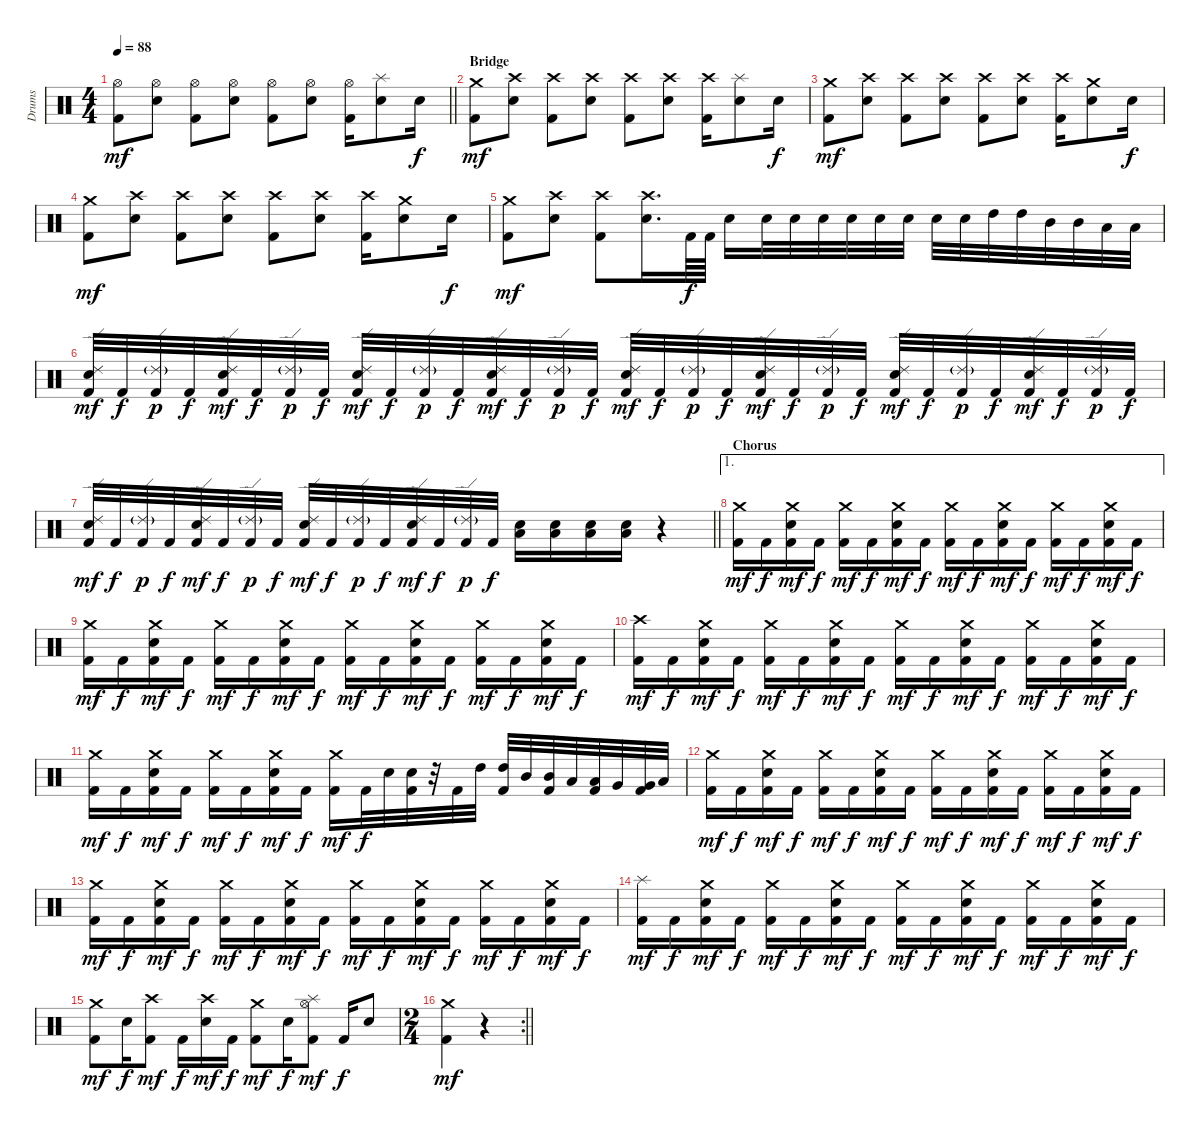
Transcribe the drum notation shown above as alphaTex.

\track ("Drums" "Drums") {instrument percussion}
\staff {score}
\articulation defaults
\ts (4 4)
\tempo 88
\clef neutral
\barLineRight lightlight
\ks c
("Hi-Hat (open)" "Kick (hit) 2").8{dy mf} ("Hi-Hat (open)" "Electric Snare (hit)").8 ("Hi-Hat (open)" "Kick (hit) 2").8 ("Hi-Hat (open)" "Electric Snare (hit)").8 ("Hi-Hat (open)" "Kick (hit) 2").8 ("Hi-Hat (open)" "Electric Snare (hit)").8 ("Hi-Hat (open)" "Kick (hit) 2").16 ("Splash (hit)" "Electric Snare (hit)").8 "Electric Snare (hit)".16{dy f} |
\section ("" "Bridge")
("Crash medium (hit)" "Kick (hit) 2").8{dy mf} ("Crash high (hit)" "Electric Snare (hit)").8 ("Crash high (hit)" "Kick (hit) 2").8 ("Crash high (hit)" "Electric Snare (hit)").8 ("Crash high (hit)" "Kick (hit) 2").8 ("Crash high (hit)" "Electric Snare (hit)").8 ("Crash high (hit)" "Kick (hit) 2").16 ("Splash (hit)" "Electric Snare (hit)").8 "Electric Snare (hit)".16{dy f} |
("Crash medium (hit)" "Kick (hit) 2").8{dy mf} ("Crash high (hit)" "Electric Snare (hit)").8 ("Crash high (hit)" "Kick (hit) 2").8 ("Crash high (hit)" "Electric Snare (hit)").8 ("Crash high (hit)" "Kick (hit) 2").8 ("Crash high (hit)" "Electric Snare (hit)").8 ("Crash high (hit)" "Kick (hit) 2").16 ("Crash medium (hit)" "Electric Snare (hit)").8 "Electric Snare (hit)".16{dy f} |
("Crash medium (hit)" "Kick (hit) 2").8{dy mf} ("Crash high (hit)" "Electric Snare (hit)").8 ("Crash high (hit)" "Kick (hit) 2").8 ("Crash high (hit)" "Electric Snare (hit)").8 ("Crash high (hit)" "Kick (hit) 2").8 ("Crash high (hit)" "Electric Snare (hit)").8 ("Crash high (hit)" "Kick (hit) 2").16 ("Crash medium (hit)" "Electric Snare (hit)").8 "Electric Snare (hit)".16{dy f} |
("Crash medium (hit)" "Kick (hit) 2").8{dy mf} ("Crash high (hit)" "Electric Snare (hit)").8 ("Crash high (hit)" "Kick (hit) 2").8 ("Crash high (hit)" "Electric Snare (hit)").16{d} "Kick (hit) 2".64{dy f} "Kick (hit) 2".64 "Electric Snare (hit)".16 "Electric Snare (hit)".32 "Electric Snare (hit)".32 "Electric Snare (hit)".32 "Electric Snare (hit)".32 "Electric Snare (hit)".32 "Electric Snare (hit)".32 "Electric Snare (hit)".32 "Electric Snare (hit)".32 "High Tom (hit)".32 "High Tom (hit)".32 "Mid Tom (hit)".32 "Mid Tom (hit)".32 "Low Tom (hit)".32 "Low Tom (hit)".32 |
("Ride (edge) 2" "Electric Snare (hit)" "Kick (hit) 2").32{dy mf} "Kick (hit) 2".32{dy f} ("Ride (edge) 2"{g} "Kick (hit) 2").32{dy p} "Kick (hit) 2".32{dy f} ("Ride (edge) 2" "Electric Snare (hit)" "Kick (hit) 2").32{dy mf} "Kick (hit) 2".32{dy f} ("Ride (edge) 2"{g} "Kick (hit) 2").32{dy p} "Kick (hit) 2".32{dy f} ("Ride (edge) 2" "Electric Snare (hit)" "Kick (hit) 2").32{dy mf} "Kick (hit) 2".32{dy f} ("Ride (edge) 2"{g} "Kick (hit) 2").32{dy p} "Kick (hit) 2".32{dy f} ("Ride (edge) 2" "Electric Snare (hit)" "Kick (hit) 2").32{dy mf} "Kick (hit) 2".32{dy f} ("Ride (edge) 2"{g} "Kick (hit) 2").32{dy p} "Kick (hit) 2".32{dy f} ("Ride (edge) 2" "Electric Snare (hit)" "Kick (hit) 2").32{dy mf} "Kick (hit) 2".32{dy f} ("Ride (edge) 2"{g} "Kick (hit) 2").32{dy p} "Kick (hit) 2".32{dy f} ("Ride (edge) 2" "Electric Snare (hit)" "Kick (hit) 2").32{dy mf} "Kick (hit) 2".32{dy f} ("Ride (edge) 2"{g} "Kick (hit) 2").32{dy p} "Kick (hit) 2".32{dy f} ("Ride (edge) 2" "Electric Snare (hit)" "Kick (hit) 2").32{dy mf} "Kick (hit) 2".32{dy f} ("Ride (edge) 2"{g} "Kick (hit) 2").32{dy p} "Kick (hit) 2".32{dy f} ("Ride (edge) 2" "Electric Snare (hit)" "Kick (hit) 2").32{dy mf} "Kick (hit) 2".32{dy f} ("Ride (edge) 2"{g} "Kick (hit) 2").32{dy p} "Kick (hit) 2".32{dy f} |
\barLineRight lightlight
("Ride (edge) 2" "Electric Snare (hit)" "Kick (hit) 2").32{dy mf} "Kick (hit) 2".32{dy f} ("Ride (edge) 2"{g} "Kick (hit) 2").32{dy p} "Kick (hit) 2".32{dy f} ("Ride (edge) 2" "Electric Snare (hit)" "Kick (hit) 2").32{dy mf} "Kick (hit) 2".32{dy f} ("Ride (edge) 2"{g} "Kick (hit) 2").32{dy p} "Kick (hit) 2".32{dy f} ("Ride (edge) 2" "Electric Snare (hit)" "Kick (hit) 2").32{dy mf} "Kick (hit) 2".32{dy f} ("Ride (edge) 2"{g} "Kick (hit) 2").32{dy p} "Kick (hit) 2".32{dy f} ("Ride (edge) 2" "Electric Snare (hit)" "Kick (hit) 2").32{dy mf} "Kick (hit) 2".32{dy f} ("Ride (edge) 2"{g} "Kick (hit) 2").32{dy p} "Kick (hit) 2".32{dy f} ("Electric Snare (hit)" "Low Floor Tom (hit)").16 ("Electric Snare (hit)" "Low Floor Tom (hit)").16 ("Electric Snare (hit)" "Low Floor Tom (hit)").16 ("Electric Snare (hit)" "Low Floor Tom (hit)").16 r.4 |
\ae 1
\section ("" "Chorus")
("Crash medium (hit)" "Kick (hit) 2").16{dy mf} "Kick (hit) 2".16{dy f} ("Crash medium (hit)" "Electric Snare (hit)" "Kick (hit) 2").16{dy mf} "Kick (hit) 2".16{dy f} ("Crash medium (hit)" "Kick (hit) 2").16{dy mf} "Kick (hit) 2".16{dy f} ("Crash medium (hit)" "Electric Snare (hit)" "Kick (hit) 2").16{dy mf} "Kick (hit) 2".16{dy f} ("Crash medium (hit)" "Kick (hit) 2").16{dy mf} "Kick (hit) 2".16{dy f} ("Crash medium (hit)" "Electric Snare (hit)" "Kick (hit) 2").16{dy mf} "Kick (hit) 2".16{dy f} ("Crash medium (hit)" "Kick (hit) 2").16{dy mf} "Kick (hit) 2".16{dy f} ("Crash medium (hit)" "Electric Snare (hit)" "Kick (hit) 2").16{dy mf} "Kick (hit) 2".16{dy f} |
("Crash medium (hit)" "Kick (hit) 2").16{dy mf} "Kick (hit) 2".16{dy f} ("Crash medium (hit)" "Electric Snare (hit)" "Kick (hit) 2").16{dy mf} "Kick (hit) 2".16{dy f} ("Crash medium (hit)" "Kick (hit) 2").16{dy mf} "Kick (hit) 2".16{dy f} ("Crash medium (hit)" "Electric Snare (hit)" "Kick (hit) 2").16{dy mf} "Kick (hit) 2".16{dy f} ("Crash medium (hit)" "Kick (hit) 2").16{dy mf} "Kick (hit) 2".16{dy f} ("Crash medium (hit)" "Electric Snare (hit)" "Kick (hit) 2").16{dy mf} "Kick (hit) 2".16{dy f} ("Crash medium (hit)" "Kick (hit) 2").16{dy mf} "Kick (hit) 2".16{dy f} ("Crash medium (hit)" "Electric Snare (hit)" "Kick (hit) 2").16{dy mf} "Kick (hit) 2".16{dy f} |
("Crash high (hit)" "Kick (hit) 2").16{dy mf} "Kick (hit) 2".16{dy f} ("Crash medium (hit)" "Electric Snare (hit)" "Kick (hit) 2").16{dy mf} "Kick (hit) 2".16{dy f} ("Crash medium (hit)" "Kick (hit) 2").16{dy mf} "Kick (hit) 2".16{dy f} ("Crash medium (hit)" "Electric Snare (hit)" "Kick (hit) 2").16{dy mf} "Kick (hit) 2".16{dy f} ("Crash medium (hit)" "Kick (hit) 2").16{dy mf} "Kick (hit) 2".16{dy f} ("Crash medium (hit)" "Electric Snare (hit)" "Kick (hit) 2").16{dy mf} "Kick (hit) 2".16{dy f} ("Crash medium (hit)" "Kick (hit) 2").16{dy mf} "Kick (hit) 2".16{dy f} ("Crash medium (hit)" "Electric Snare (hit)" "Kick (hit) 2").16{dy mf} "Kick (hit) 2".16{dy f} |
("Crash medium (hit)" "Kick (hit) 2").16{dy mf} "Kick (hit) 2".16{dy f} ("Crash medium (hit)" "Electric Snare (hit)" "Kick (hit) 2").16{dy mf} "Kick (hit) 2".16{dy f} ("Crash medium (hit)" "Kick (hit) 2").16{dy mf} "Kick (hit) 2".16{dy f} ("Crash medium (hit)" "Electric Snare (hit)" "Kick (hit) 2").16{dy mf} "Kick (hit) 2".16{dy f} ("Crash medium (hit)" "Kick (hit) 2").16{dy mf} "Kick (hit) 2".32{dy f} "Electric Snare (hit)".32 ("Electric Snare (hit)" "Kick (hit) 2").32 r.32 "Kick (hit) 2".32 "High Tom (hit)".32 ("High Tom (hit)" "Kick (hit) 2").32 "Mid Tom (hit)".32 ("Mid Tom (hit)" "Kick (hit) 2").32 "Low Tom (hit)".32 ("Low Tom (hit)" "Kick (hit) 2").32 "Very Low Tom (hit)".32 ("Very Low Tom (hit)" "Kick (hit) 2").32 "Low Floor Tom (hit)".32 |
("Crash medium (hit)" "Kick (hit) 2").16{dy mf} "Kick (hit) 2".16{dy f} ("Crash medium (hit)" "Electric Snare (hit)" "Kick (hit) 2").16{dy mf} "Kick (hit) 2".16{dy f} ("Crash medium (hit)" "Kick (hit) 2").16{dy mf} "Kick (hit) 2".16{dy f} ("Crash medium (hit)" "Electric Snare (hit)" "Kick (hit) 2").16{dy mf} "Kick (hit) 2".16{dy f} ("Crash medium (hit)" "Kick (hit) 2").16{dy mf} "Kick (hit) 2".16{dy f} ("Crash medium (hit)" "Electric Snare (hit)" "Kick (hit) 2").16{dy mf} "Kick (hit) 2".16{dy f} ("Crash medium (hit)" "Kick (hit) 2").16{dy mf} "Kick (hit) 2".16{dy f} ("Crash medium (hit)" "Electric Snare (hit)" "Kick (hit) 2").16{dy mf} "Kick (hit) 2".16{dy f} |
("Crash medium (hit)" "Kick (hit) 2").16{dy mf} "Kick (hit) 2".16{dy f} ("Crash medium (hit)" "Electric Snare (hit)" "Kick (hit) 2").16{dy mf} "Kick (hit) 2".16{dy f} ("Crash medium (hit)" "Kick (hit) 2").16{dy mf} "Kick (hit) 2".16{dy f} ("Crash medium (hit)" "Electric Snare (hit)" "Kick (hit) 2").16{dy mf} "Kick (hit) 2".16{dy f} ("Crash medium (hit)" "Kick (hit) 2").16{dy mf} "Kick (hit) 2".16{dy f} ("Crash medium (hit)" "Electric Snare (hit)" "Kick (hit) 2").16{dy mf} "Kick (hit) 2".16{dy f} ("Crash medium (hit)" "Kick (hit) 2").16{dy mf} "Kick (hit) 2".16{dy f} ("Crash medium (hit)" "Electric Snare (hit)" "Kick (hit) 2").16{dy mf} "Kick (hit) 2".16{dy f} |
("Splash (hit)" "Kick (hit) 2").16{dy mf} "Kick (hit) 2".16{dy f} ("Crash medium (hit)" "Electric Snare (hit)" "Kick (hit) 2").16{dy mf} "Kick (hit) 2".16{dy f} ("Crash medium (hit)" "Kick (hit) 2").16{dy mf} "Kick (hit) 2".16{dy f} ("Crash medium (hit)" "Electric Snare (hit)" "Kick (hit) 2").16{dy mf} "Kick (hit) 2".16{dy f} ("Crash medium (hit)" "Kick (hit) 2").16{dy mf} "Kick (hit) 2".16{dy f} ("Crash medium (hit)" "Electric Snare (hit)" "Kick (hit) 2").16{dy mf} "Kick (hit) 2".16{dy f} ("Crash medium (hit)" "Kick (hit) 2").16{dy mf} "Kick (hit) 2".16{dy f} ("Crash medium (hit)" "Electric Snare (hit)" "Kick (hit) 2").16{dy mf} "Kick (hit) 2".16{dy f} |
("Crash medium (hit)" "Kick (hit) 2").8{dy mf} "Electric Snare (hit)".16{dy f} ("Crash high (hit)" "Kick (hit) 2").8{dy mf} "Kick (hit) 2".16{dy f} ("Crash high (hit)" "Electric Snare (hit)").16{dy mf} "Kick (hit) 2".16{dy f} ("Crash medium (hit)" "Kick (hit) 2").8{dy mf} "Electric Snare (hit)".16{dy f} ("Hi-Hat (open)" "Splash (hit)" "Kick (hit) 2").8{dy mf} "Kick (hit) 2".16{dy f} "Electric Snare (hit)".8 |
\rc 2
\ts (2 4)
\barLineRight lightlight
("Crash medium (hit)" "Kick (hit) 2").4{dy mf} r.4
